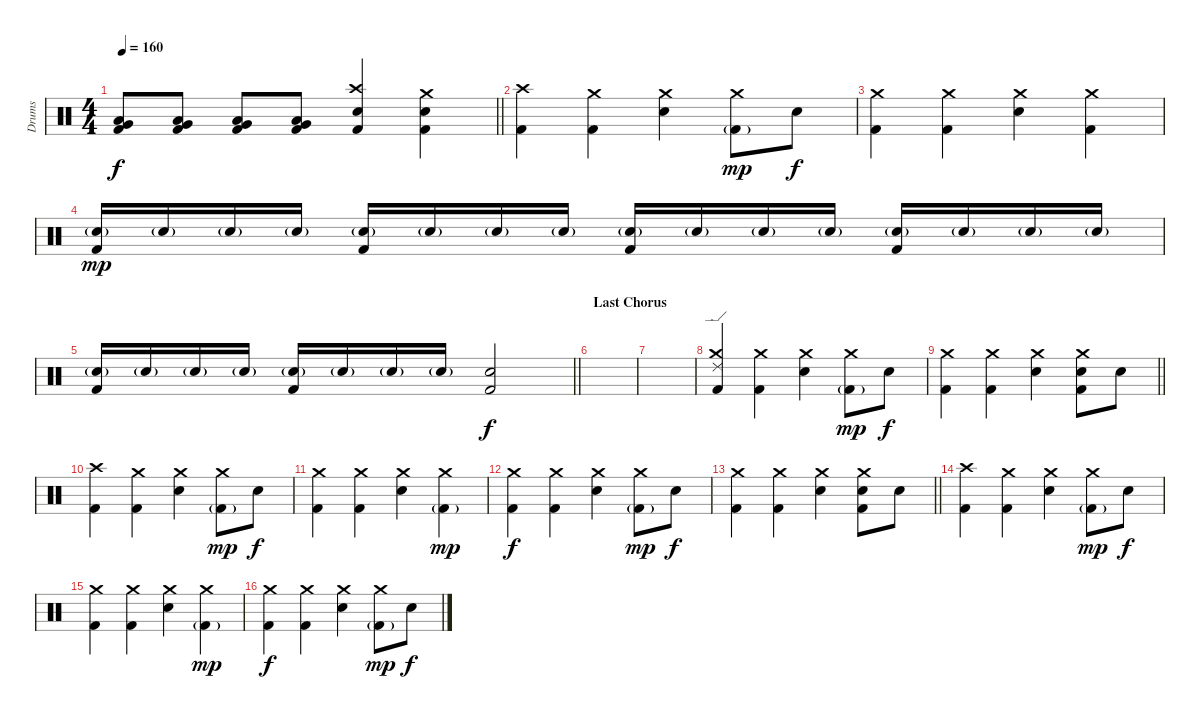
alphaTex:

\track ("Drums" "Drums") {instrument percussion}
\staff {score}
\articulation defaults
\ts (4 4)
\tempo 160
\clef neutral
\barLineRight lightlight
\ks c
("Very Low Tom (hit)" "Low Floor Tom (hit)" "Kick (hit) 2").8{dy f} ("Very Low Tom (hit)" "Low Floor Tom (hit)" "Kick (hit) 2").8 ("Very Low Tom (hit)" "Low Floor Tom (hit)" "Kick (hit) 2").8 ("Very Low Tom (hit)" "Low Floor Tom (hit)" "Kick (hit) 2").8 ("Crash high (hit)" "Electric Snare (hit)" "Kick (hit) 2").4 ("Crash medium (hit)" "Electric Snare (hit)" "Kick (hit) 2").4 |
("Crash high (hit)" "Kick (hit) 2").4 ("Crash medium (hit)" "Kick (hit) 2").4 ("Crash medium (hit)" "Electric Snare (hit)").4 ("Crash medium (hit)" "Kick (hit) 2"{g}).8{dy mp} "Electric Snare (hit)".8{dy f} |
("Crash medium (hit)" "Kick (hit) 2").4 ("Crash medium (hit)" "Kick (hit) 2").4 ("Crash medium (hit)" "Electric Snare (hit)").4 ("Crash medium (hit)" "Kick (hit) 2").4 |
("Electric Snare (hit)"{g} "Kick (hit) 2").16{dy mp} "Electric Snare (hit)"{g}.16 "Electric Snare (hit)"{g}.16 "Electric Snare (hit)"{g}.16 ("Electric Snare (hit)"{g} "Kick (hit) 2").16 "Electric Snare (hit)"{g}.16 "Electric Snare (hit)"{g}.16 "Electric Snare (hit)"{g}.16 ("Electric Snare (hit)"{g} "Kick (hit) 2").16 "Electric Snare (hit)"{g}.16 "Electric Snare (hit)"{g}.16 "Electric Snare (hit)"{g}.16 ("Electric Snare (hit)"{g} "Kick (hit) 2").16 "Electric Snare (hit)"{g}.16 "Electric Snare (hit)"{g}.16 "Electric Snare (hit)"{g}.16 |
\barLineRight lightlight
("Electric Snare (hit)"{g} "Kick (hit) 2").16 "Electric Snare (hit)"{g}.16 "Electric Snare (hit)"{g}.16 "Electric Snare (hit)"{g}.16 ("Electric Snare (hit)"{g} "Kick (hit) 2").16 "Electric Snare (hit)"{g}.16 "Electric Snare (hit)"{g}.16 "Electric Snare (hit)"{g}.16 ("Electric Snare (hit)" "Kick (hit) 2").2{dy f} |
\section ("" "Last Chorus")
|
|
("Ride (edge) 2" "Crash medium (hit)" "Kick (hit) 2").4 ("Crash medium (hit)" "Kick (hit) 2").4 ("Crash medium (hit)" "Electric Snare (hit)").4 ("Crash medium (hit)" "Kick (hit) 2"{g}).8{dy mp} "Electric Snare (hit)".8{dy f} |
\barLineRight lightlight
("Crash medium (hit)" "Kick (hit) 2").4 ("Crash medium (hit)" "Kick (hit) 2").4 ("Crash medium (hit)" "Electric Snare (hit)").4 ("Crash medium (hit)" "Electric Snare (hit)" "Kick (hit) 2").8 "Electric Snare (hit)".8 |
("Crash high (hit)" "Kick (hit) 2").4 ("Crash medium (hit)" "Kick (hit) 2").4 ("Crash medium (hit)" "Electric Snare (hit)").4 ("Crash medium (hit)" "Kick (hit) 2"{g}).8{dy mp} "Electric Snare (hit)".8{dy f} |
("Crash medium (hit)" "Kick (hit) 2").4 ("Crash medium (hit)" "Kick (hit) 2").4 ("Crash medium (hit)" "Electric Snare (hit)").4 ("Crash medium (hit)" "Kick (hit) 2"{g}).4{dy mp} |
("Crash medium (hit)" "Kick (hit) 2").4{dy f} ("Crash medium (hit)" "Kick (hit) 2").4 ("Crash medium (hit)" "Electric Snare (hit)").4 ("Crash medium (hit)" "Kick (hit) 2"{g}).8{dy mp} "Electric Snare (hit)".8{dy f} |
\barLineRight lightlight
("Crash medium (hit)" "Kick (hit) 2").4 ("Crash medium (hit)" "Kick (hit) 2").4 ("Crash medium (hit)" "Electric Snare (hit)").4 ("Crash medium (hit)" "Electric Snare (hit)" "Kick (hit) 2").8 "Electric Snare (hit)".8 |
("Crash high (hit)" "Kick (hit) 2").4 ("Crash medium (hit)" "Kick (hit) 2").4 ("Crash medium (hit)" "Electric Snare (hit)").4 ("Crash medium (hit)" "Kick (hit) 2"{g}).8{dy mp} "Electric Snare (hit)".8{dy f} |
("Crash medium (hit)" "Kick (hit) 2").4 ("Crash medium (hit)" "Kick (hit) 2").4 ("Crash medium (hit)" "Electric Snare (hit)").4 ("Crash medium (hit)" "Kick (hit) 2"{g}).4{dy mp} |
("Crash medium (hit)" "Kick (hit) 2").4{dy f} ("Crash medium (hit)" "Kick (hit) 2").4 ("Crash medium (hit)" "Electric Snare (hit)").4 ("Crash medium (hit)" "Kick (hit) 2"{g}).8{dy mp} "Electric Snare (hit)".8{dy f}
